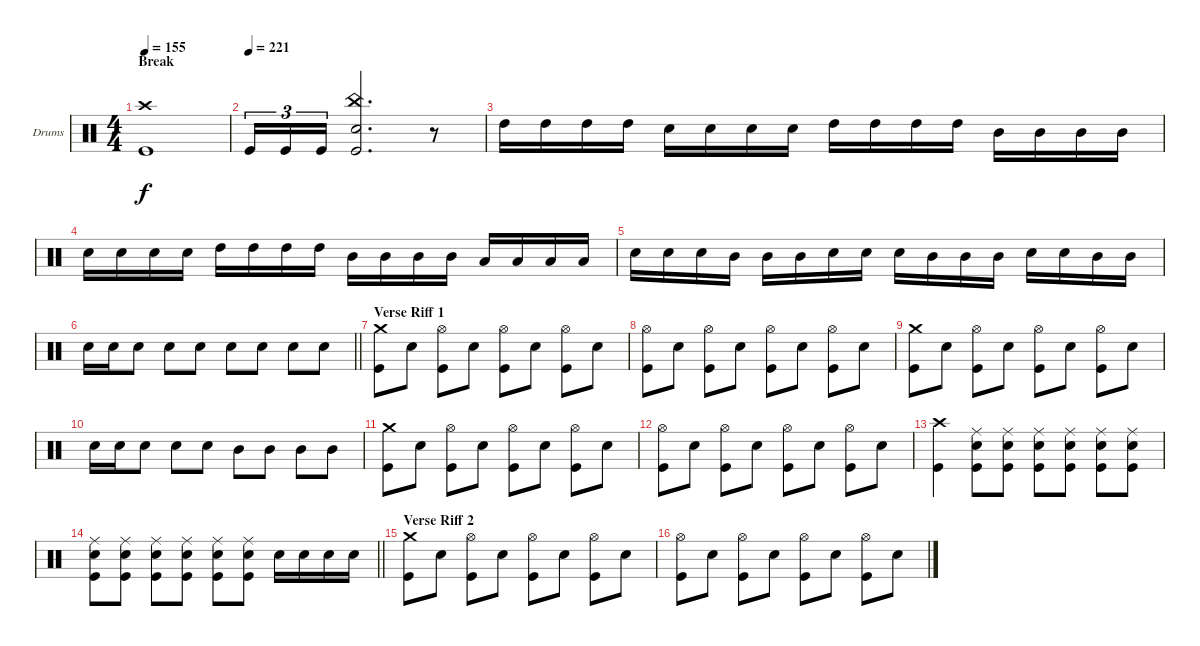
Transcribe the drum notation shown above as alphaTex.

\bracketExtendMode groupsimilarinstruments
\firstSystemTrackNameOrientation horizontal
\otherSystemsTrackNameOrientation horizontal
\track ("Drumkit" "Drums") {instrument percussion}
\staff {score}
\articulation defaults
\ts (4 4)
\section ("" "Break")
\tempo 155
\clef neutral
\ks c
("Crash high (hit)" "Kick (hit)").1{dy f} |
\tempo (221)
"Kick (hit)".16{tu (3 2)} "Kick (hit)".16{tu (3 2)} "Kick (hit)".16{tu (3 2)} ("China (hit)" "Snare (hit) 2" "Kick (hit)").2{d} r.8 |
"High Tom (hit)".16 "High Tom (hit)".16 "High Tom (hit)".16 "High Tom (hit)".16 "Snare (hit) 2".16 "Snare (hit) 2".16 "Snare (hit) 2".16 "Snare (hit) 2".16 "High Tom (hit)".16 "High Tom (hit)".16 "High Tom (hit)".16 "High Tom (hit)".16 "Mid Tom (hit)".16 "Mid Tom (hit)".16 "Mid Tom (hit)".16 "Mid Tom (hit)".16 |
"Snare (hit) 2".16 "Snare (hit) 2".16 "Snare (hit) 2".16 "Snare (hit) 2".16 "High Tom (hit)".16 "High Tom (hit)".16 "High Tom (hit)".16 "High Tom (hit)".16 "Mid Tom (hit)".16 "Mid Tom (hit)".16 "Mid Tom (hit)".16 "Mid Tom (hit)".16 "Low Tom (hit)".16 "Low Tom (hit)".16 "Low Tom (hit)".16 "Low Tom (hit)".16 |
"Snare (hit) 2".16 "Snare (hit) 2".16 "Snare (hit) 2".16 "Mid Tom (hit)".16 "Mid Tom (hit)".16 "Mid Tom (hit)".16 "Snare (hit) 2".16 "Snare (hit) 2".16 "Snare (hit) 2".16 "Mid Tom (hit)".16 "Mid Tom (hit)".16 "Mid Tom (hit)".16 "Snare (hit) 2".16 "Snare (hit) 2".16 "Mid Tom (hit)".16 "Mid Tom (hit)".16 |
\barLineRight lightlight "Snare (hit) 2".16 "Snare (hit) 2".16 "Snare (hit) 2".8 "Snare (hit) 2".8 "Snare (hit) 2".8 "Snare (hit) 2".8 "Snare (hit) 2".8 "Snare (hit) 2".8 "Snare (hit) 2".8
|
\section ("" "Verse Riff 1")
("Crash medium (hit)" "Kick (hit)").8 "Snare (hit) 2".8 ("Hi-Hat (open)" "Kick (hit)").8 "Snare (hit) 2".8 ("Hi-Hat (open)" "Kick (hit)").8 "Snare (hit) 2".8 ("Hi-Hat (open)" "Kick (hit)").8 "Snare (hit) 2".8 |
("Hi-Hat (open)" "Kick (hit)").8 "Snare (hit) 2".8 ("Hi-Hat (open)" "Kick (hit)").8 "Snare (hit) 2".8 ("Hi-Hat (open)" "Kick (hit)").8 "Snare (hit) 2".8 ("Hi-Hat (open)" "Kick (hit)").8 "Snare (hit) 2".8 |
("Crash medium (hit)" "Kick (hit)").8 "Snare (hit) 2".8 ("Hi-Hat (open)" "Kick (hit)").8 "Snare (hit) 2".8 ("Hi-Hat (open)" "Kick (hit)").8 "Snare (hit) 2".8 ("Hi-Hat (open)" "Kick (hit)").8 "Snare (hit) 2".8 |
"Snare (hit) 2".16 "Snare (hit) 2".16 "Snare (hit) 2".8 "Snare (hit) 2".8 "Snare (hit) 2".8 "Mid Tom (hit)".8 "Mid Tom (hit)".8 "Mid Tom (hit)".8 "Mid Tom (hit)".8 |
("Crash medium (hit)" "Kick (hit)").8 "Snare (hit) 2".8 ("Hi-Hat (open)" "Kick (hit)").8 "Snare (hit) 2".8 ("Hi-Hat (open)" "Kick (hit)").8 "Snare (hit) 2".8 ("Hi-Hat (open)" "Kick (hit)").8 "Snare (hit) 2".8 |
("Hi-Hat (open)" "Kick (hit)").8 "Snare (hit) 2".8 ("Hi-Hat (open)" "Kick (hit)").8 "Snare (hit) 2".8 ("Hi-Hat (open)" "Kick (hit)").8 "Snare (hit) 2".8 ("Hi-Hat (open)" "Kick (hit)").8 "Snare (hit) 2".8 |
("Crash high (hit)" "Kick (hit)").4 ("Ride (middle)" "Snare (hit) 2" "Kick (hit)").8 ("Ride (middle)" "Snare (hit) 2" "Kick (hit)").8 ("Ride (middle)" "Snare (hit) 2" "Kick (hit)").8 ("Ride (middle)" "Snare (hit) 2" "Kick (hit)").8 ("Ride (middle)" "Snare (hit) 2" "Kick (hit)").8 ("Ride (middle)" "Snare (hit) 2" "Kick (hit)").8 |
\barLineRight lightlight
("Ride (middle)" "Snare (hit) 2" "Kick (hit)").8 ("Ride (middle)" "Snare (hit) 2" "Kick (hit)").8 ("Ride (middle)" "Snare (hit) 2" "Kick (hit)").8 ("Ride (middle)" "Snare (hit) 2" "Kick (hit)").8 ("Ride (middle)" "Snare (hit) 2" "Kick (hit)").8 ("Ride (middle)" "Snare (hit) 2" "Kick (hit)").8 "Snare (hit) 2".16 "Snare (hit) 2".16 "Snare (hit) 2".16 "Snare (hit) 2".16 |
\section ("" "Verse Riff 2")
("Crash medium (hit)" "Kick (hit)").8 "Snare (hit) 2".8 ("Hi-Hat (open)" "Kick (hit)").8 "Snare (hit) 2".8 ("Hi-Hat (open)" "Kick (hit)").8 "Snare (hit) 2".8 ("Hi-Hat (open)" "Kick (hit)").8 "Snare (hit) 2".8 |
("Hi-Hat (open)" "Kick (hit)").8 "Snare (hit) 2".8 ("Hi-Hat (open)" "Kick (hit)").8 "Snare (hit) 2".8 ("Hi-Hat (open)" "Kick (hit)").8 "Snare (hit) 2".8 ("Hi-Hat (open)" "Kick (hit)").8 "Snare (hit) 2".8
